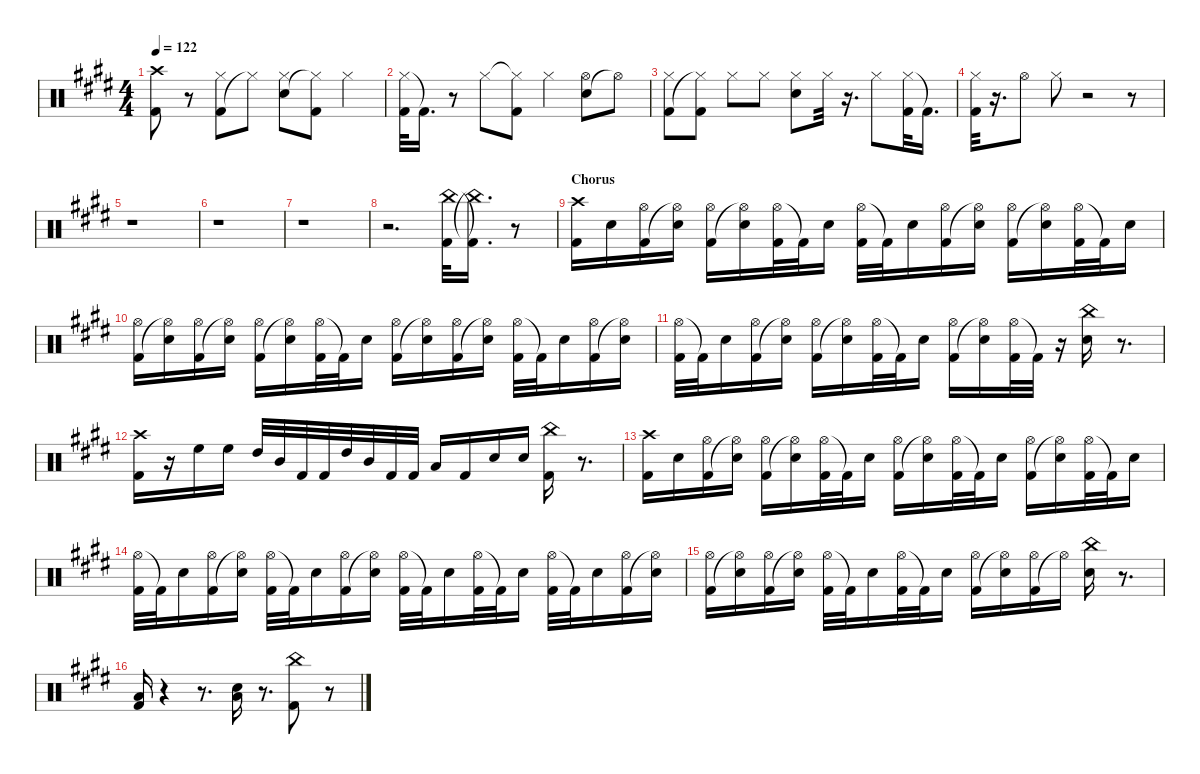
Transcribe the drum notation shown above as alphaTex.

\defaultSystemsLayout 4
\hideDynamics
\bracketExtendMode nobrackets
\otherSystemsTrackNameOrientation horizontal
\track ("Shinya" "  ") {instrument percussion}
\staff {score}
\articulation defaults
\ts (4 4)
\tempo 122
\clef neutral
\ks c#minor
("Kick (hit) 2"{acc forcenatural} "Crash high (hit)"{acc #}).8{dy fff} r.8 ("Kick (hit) 2"{acc forcenatural} "Hi-Hat (closed)"{acc #}).8 "Hi-Hat (closed)"{t acc #}.8 ("Snare (hit) 2"{acc forcenatural} "Hi-Hat (closed)"{acc #}).8 ("Hi-Hat (closed)"{t acc #} "Kick (hit) 2"{acc forcenatural}).8 "Hi-Hat (closed)"{acc #}.4 |
("Hi-Hat (closed)"{acc #} "Kick (hit) 2"{acc forcenatural}).32 "Kick (hit) 2"{t acc forcenatural}.16{d} r.8 "Hi-Hat (closed)"{acc #}.8 ("Hi-Hat (closed)"{t acc #} "Kick (hit) 2"{acc forcenatural}).8 "Hi-Hat (closed)"{acc #}.4 ("Snare (hit) 2"{acc forcenatural} "Hi-Hat (open)"{acc #}).8 "Hi-Hat (open)"{t acc #}.8 |
("Kick (hit) 2"{acc forcenatural} "Hi-Hat (closed)"{acc #}).8 ("Hi-Hat (closed)"{t acc #} "Kick (hit) 2"{acc forcenatural}).8 "Hi-Hat (closed)"{acc #}.8 "Hi-Hat (closed)"{acc #}.8 ("Snare (hit) 2"{acc forcenatural} "Hi-Hat (closed)"{acc #}).8 "Hi-Hat (closed)"{acc #}.32 r.16{d} "Hi-Hat (closed)"{acc #}.8 ("Hi-Hat (closed)"{acc #} "Kick (hit) 2"{acc forcenatural}).32 "Kick (hit) 2"{t acc forcenatural}.16{d} |
("Kick (hit) 2"{acc forcenatural} "Hi-Hat (closed)"{acc #}).32 r.16{d} "Hi-Hat (open)"{acc #}.8 "Hi-Hat (closed)"{acc #}.8 r.2 r.8 |
r.1 |
r.1 |
r.1 |
r.2{d} ("China (hit)"{acc forcenatural} "Kick (hit) 2"{acc forcenatural}).32 ("Kick (hit) 2"{t acc forcenatural} "China (hit)"{t acc forcenatural}).16{d} r.8 |
\section ("" "Chorus")
("Kick (hit) 2"{acc forcenatural} "Crash high (hit)"{acc #}).16 "Snare (hit) 2"{acc forcenatural}.16 ("Kick (hit) 2"{acc forcenatural} "Hi-Hat (open)"{acc #}).16 ("Hi-Hat (open)"{t acc #} "Snare (hit) 2"{acc forcenatural}).16 ("Kick (hit) 2"{acc forcenatural} "Hi-Hat (open)"{acc #}).16 ("Hi-Hat (open)"{t acc #} "Snare (hit) 2"{acc forcenatural}).16 ("Hi-Hat (open)"{acc #} "Kick (hit) 2"{acc forcenatural}).32 "Kick (hit) 2"{t acc forcenatural}.32 "Snare (hit) 2"{acc forcenatural}.16 ("Hi-Hat (open)"{acc #} "Kick (hit) 2"{acc forcenatural}).32 "Kick (hit) 2"{t acc forcenatural}.32 "Snare (hit) 2"{acc forcenatural}.16 ("Kick (hit) 2"{acc forcenatural} "Hi-Hat (open)"{acc #}).16 ("Hi-Hat (open)"{t acc #} "Snare (hit) 2"{acc forcenatural}).16 ("Kick (hit) 2"{acc forcenatural} "Hi-Hat (open)"{acc #}).16 ("Hi-Hat (open)"{t acc #} "Snare (hit) 2"{acc forcenatural}).16 ("Hi-Hat (open)"{acc #} "Kick (hit) 2"{acc forcenatural}).32 "Kick (hit) 2"{t acc forcenatural}.32 "Snare (hit) 2"{acc forcenatural}.16 |
("Kick (hit) 2"{acc forcenatural} "Hi-Hat (open)"{acc #}).16 ("Hi-Hat (open)"{t acc #} "Snare (hit) 2"{acc forcenatural}).16 ("Kick (hit) 2"{acc forcenatural} "Hi-Hat (open)"{acc #}).16 ("Hi-Hat (open)"{t acc #} "Snare (hit) 2"{acc forcenatural}).16 ("Kick (hit) 2"{acc forcenatural} "Hi-Hat (open)"{acc #}).16 ("Hi-Hat (open)"{t acc #} "Snare (hit) 2"{acc forcenatural}).16 ("Hi-Hat (open)"{acc #} "Kick (hit) 2"{acc forcenatural}).32 "Kick (hit) 2"{t acc forcenatural}.32 "Snare (hit) 2"{acc forcenatural}.16 ("Kick (hit) 2"{acc forcenatural} "Hi-Hat (open)"{acc #}).16 ("Hi-Hat (open)"{t acc #} "Snare (hit) 2"{acc forcenatural}).16 ("Kick (hit) 2"{acc forcenatural} "Hi-Hat (open)"{acc #}).16 ("Hi-Hat (open)"{t acc #} "Snare (hit) 2"{acc forcenatural}).16 ("Hi-Hat (open)"{acc #} "Kick (hit) 2"{acc forcenatural}).32 "Kick (hit) 2"{t acc forcenatural}.32 "Snare (hit) 2"{acc forcenatural}.16 ("Kick (hit) 2"{acc forcenatural} "Hi-Hat (open)"{acc #}).16 ("Hi-Hat (open)"{t acc #} "Snare (hit) 2"{acc forcenatural}).16 |
("Hi-Hat (open)"{acc #} "Kick (hit) 2"{acc forcenatural}).32 "Kick (hit) 2"{t acc forcenatural}.32 "Snare (hit) 2"{acc forcenatural}.16 ("Kick (hit) 2"{acc forcenatural} "Hi-Hat (open)"{acc #}).16 ("Hi-Hat (open)"{t acc #} "Snare (hit) 2"{acc forcenatural}).16 ("Kick (hit) 2"{acc forcenatural} "Hi-Hat (open)"{acc #}).16 ("Hi-Hat (open)"{t acc #} "Snare (hit) 2"{acc forcenatural}).16 ("Hi-Hat (open)"{acc #} "Kick (hit) 2"{acc forcenatural}).32 "Kick (hit) 2"{t acc forcenatural}.32 "Snare (hit) 2"{acc forcenatural}.16 ("Kick (hit) 2"{acc forcenatural} "Hi-Hat (open)"{acc #}).16 ("Hi-Hat (open)"{t acc #} "Snare (hit) 2"{acc forcenatural}).16 ("Hi-Hat (open)"{acc #} "Kick (hit) 2"{acc forcenatural}).32 "Kick (hit) 2"{t acc forcenatural}.32 r.16 ("Snare (hit) 2"{acc forcenatural} "China (hit)"{acc forcenatural}).16 r.8{d} |
("Kick (hit) 2"{acc forcenatural} "Crash high (hit)"{acc #}).16 r.16 "High Floor Tom (hit)"{acc forcenatural}.16 "High Floor Tom (hit)"{acc forcenatural}.16 "High Tom (hit)"{acc forcenatural}.32 "Mid Tom (hit)"{acc forcenatural}.32 "Kick (hit) 2"{acc forcenatural}.32 "Kick (hit) 2"{acc forcenatural}.32 "High Tom (hit)"{acc forcenatural}.32 "Mid Tom (hit)"{acc forcenatural}.32 "Kick (hit) 2"{acc forcenatural}.32 "Kick (hit) 2"{acc forcenatural}.32 "Low Tom (hit)"{acc forcenatural}.16 "Kick (hit) 2"{acc forcenatural}.16 "Snare (hit) 2"{acc forcenatural}.16 "Snare (hit) 2"{acc forcenatural}.16 ("Kick (hit) 2"{acc forcenatural} "China (hit)"{acc forcenatural}).16 r.8{d} |
("Kick (hit) 2"{acc forcenatural} "Crash high (hit)"{acc #}).16 "Snare (hit) 2"{acc forcenatural}.16 ("Kick (hit) 2"{acc forcenatural} "Hi-Hat (open)"{acc #}).16 ("Hi-Hat (open)"{t acc #} "Snare (hit) 2"{acc forcenatural}).16 ("Kick (hit) 2"{acc forcenatural} "Hi-Hat (open)"{acc #}).16 ("Hi-Hat (open)"{t acc #} "Snare (hit) 2"{acc forcenatural}).16 ("Hi-Hat (open)"{acc #} "Kick (hit) 2"{acc forcenatural}).32 "Kick (hit) 2"{t acc forcenatural}.32 "Snare (hit) 2"{acc forcenatural}.16 ("Kick (hit) 2"{acc forcenatural} "Hi-Hat (open)"{acc #}).16 ("Hi-Hat (open)"{t acc #} "Snare (hit) 2"{acc forcenatural}).16 ("Hi-Hat (open)"{acc #} "Kick (hit) 2"{acc forcenatural}).32 "Kick (hit) 2"{t acc forcenatural}.32 "Snare (hit) 2"{acc forcenatural}.16 ("Kick (hit) 2"{acc forcenatural} "Hi-Hat (open)"{acc #}).16 ("Hi-Hat (open)"{t acc #} "Snare (hit) 2"{acc forcenatural}).16 ("Hi-Hat (open)"{acc #} "Kick (hit) 2"{acc forcenatural}).32 "Kick (hit) 2"{t acc forcenatural}.32 "Snare (hit) 2"{acc forcenatural}.16 |
("Hi-Hat (open)"{acc #} "Kick (hit) 2"{acc forcenatural}).32 "Kick (hit) 2"{t acc forcenatural}.32 "Snare (hit) 2"{acc forcenatural}.16 ("Kick (hit) 2"{acc forcenatural} "Hi-Hat (open)"{acc #}).16 ("Hi-Hat (open)"{t acc #} "Snare (hit) 2"{acc forcenatural}).16 ("Hi-Hat (open)"{acc #} "Kick (hit) 2"{acc forcenatural}).32 "Kick (hit) 2"{t acc forcenatural}.32 "Snare (hit) 2"{acc forcenatural}.16 ("Kick (hit) 2"{acc forcenatural} "Hi-Hat (open)"{acc #}).16 ("Hi-Hat (open)"{t acc #} "Snare (hit) 2"{acc forcenatural}).16 ("Hi-Hat (open)"{acc #} "Kick (hit) 2"{acc forcenatural}).32 "Kick (hit) 2"{t acc forcenatural}.32 "Snare (hit) 2"{acc forcenatural}.16 ("Hi-Hat (open)"{acc #} "Kick (hit) 2"{acc forcenatural}).32 "Kick (hit) 2"{t acc forcenatural}.32 "Snare (hit) 2"{acc forcenatural}.16 ("Hi-Hat (open)"{acc #} "Kick (hit) 2"{acc forcenatural}).32 "Kick (hit) 2"{t acc forcenatural}.32 "Snare (hit) 2"{acc forcenatural}.16 ("Kick (hit) 2"{acc forcenatural} "Hi-Hat (open)"{acc #}).16 ("Hi-Hat (open)"{t acc #} "Snare (hit) 2"{acc forcenatural}).16 |
("Kick (hit) 2"{acc forcenatural} "Hi-Hat (open)"{acc #}).16 ("Hi-Hat (open)"{t acc #} "Snare (hit) 2"{acc forcenatural}).16 ("Kick (hit) 2"{acc forcenatural} "Hi-Hat (open)"{acc #}).16 ("Hi-Hat (open)"{t acc #} "Snare (hit) 2"{acc forcenatural}).16 ("Hi-Hat (open)"{acc #} "Kick (hit) 2"{acc forcenatural}).32 "Kick (hit) 2"{t acc forcenatural}.32 "Snare (hit) 2"{acc forcenatural}.16 ("Hi-Hat (open)"{acc #} "Kick (hit) 2"{acc forcenatural}).32 "Kick (hit) 2"{t acc forcenatural}.32 "Snare (hit) 2"{acc forcenatural}.16 ("Kick (hit) 2"{acc forcenatural} "Hi-Hat (open)"{acc #}).16 ("Hi-Hat (open)"{t acc #} "Snare (hit) 2"{acc forcenatural}).16 ("Kick (hit) 2"{acc forcenatural} "Hi-Hat (open)"{acc #}).16 "Hi-Hat (open)"{t acc #}.16 ("Snare (hit) 2"{acc forcenatural} "China (hit)"{acc forcenatural}).16 r.8{d} |
("Kick (hit) 2"{acc forcenatural} "Low Tom (hit)"{acc forcenatural}).16 r.4 r.8{d} ("Snare (hit) 2"{acc forcenatural} "Low Tom (hit)"{acc forcenatural}).16 r.8{d} ("Kick (hit) 2"{acc forcenatural} "China (hit)"{acc forcenatural}).8 r.8
